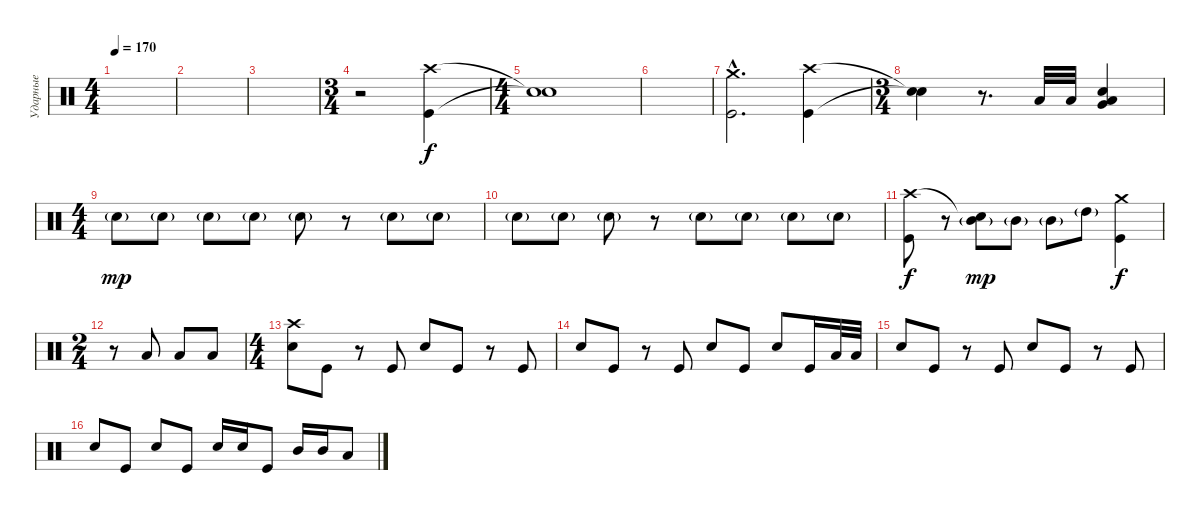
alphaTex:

\track ("Ударные" "Ударные") {instrument percussion}
\staff {score}
\articulation defaults
\ts (4 4)
\tempo 170
\clef neutral
\ks c
|
|
|
\ts (3 4)
r.2 ("Crash high (hit)" "Kick (hit)").4 |
\ts (4 4)
("Snare (hit)"{t} "Snare (hit)"{t}).1 |
|
("Crash medium (hit)"{hac} "Kick (hit)"{hac}).2{d} ("Crash high (hit)" "Kick (hit)").4 |
\ts (3 4)
("Snare (hit)"{t} "Snare (hit)"{t}).4 r.8{d} "Low Tom (hit)".32 "Low Tom (hit)".32 ("Electric Snare (hit)" "Very Low Tom (hit)" "Low Tom (hit)").4 |
\ts (4 4)
"Electric Snare (hit)"{g}.8{dy mp} "Electric Snare (hit)"{g}.8 "Electric Snare (hit)"{g}.8 "Electric Snare (hit)"{g}.8 "Electric Snare (hit)"{g}.8 r.8 "Electric Snare (hit)"{g}.8 "Electric Snare (hit)"{g}.8 |
"Electric Snare (hit)"{g}.8 "Electric Snare (hit)"{g}.8 "Electric Snare (hit)"{g}.8 r.8 "Electric Snare (hit)"{g}.8 "Electric Snare (hit)"{g}.8 "Electric Snare (hit)"{g}.8 "Electric Snare (hit)"{g}.8 |
("Crash high (hit)" "Kick (hit)").8{dy f} r.8 ("Snare (hit)"{t} "Mid Tom (hit)"{g}).8{dy mp} "Mid Tom (hit)"{g}.8 "Mid Tom (hit)"{g}.8 "High Tom (hit)"{g}.8 ("Crash medium (hit)" "Kick (hit)").4{dy f} |
\ts (2 4)
r.8 "Low Tom (hit)".8 "Low Tom (hit)".8 "Low Tom (hit)".8 |
\ts (4 4)
("Crash high (hit)" "Electric Snare (hit)").8 "Kick (hit)".8 r.8 "Kick (hit)".8 "Electric Snare (hit)".8 "Kick (hit)".8 r.8 "Kick (hit)".8 |
"Electric Snare (hit)".8 "Kick (hit)".8 r.8 "Kick (hit)".8 "Electric Snare (hit)".8 "Kick (hit)".8 "Electric Snare (hit)".8 "Kick (hit)".16 "Low Tom (hit)".32 "Low Tom (hit)".32 |
"Electric Snare (hit)".8 "Kick (hit)".8 r.8 "Kick (hit)".8 "Electric Snare (hit)".8 "Kick (hit)".8 r.8 "Kick (hit)".8 |
"Electric Snare (hit)".8 "Kick (hit)".8 "Electric Snare (hit)".8 "Kick (hit)".8 "Electric Snare (hit)".16 "Electric Snare (hit)".16 "Kick (hit)".8 "Mid Tom (hit)".16 "Mid Tom (hit)".16 "Low Tom (hit)".8
